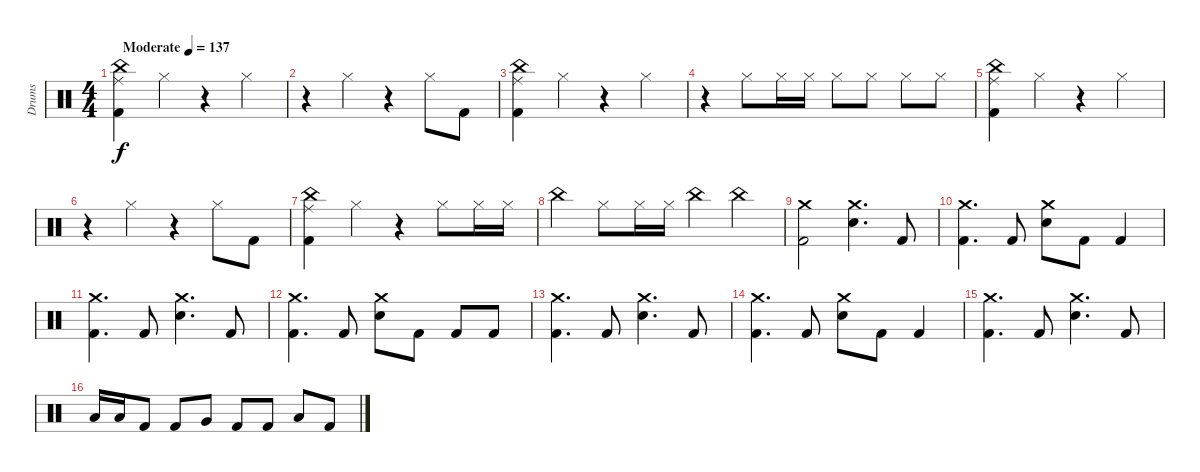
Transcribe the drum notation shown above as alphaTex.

\track ("Drums" "Drums") {instrument percussion}
\staff {score}
\articulation defaults
\ts (4 4)
\tempo (137 "Moderate")
\clef neutral
\ks c
("Kick (hit) 2" "Ride (middle)" "China (hit)").4{dy f} "Hi-Hat (closed)".4 r.4 "Hi-Hat (closed)".4 |
r.4 "Hi-Hat (closed)".4 r.4 "Hi-Hat (closed)".8 "Kick (hit) 2".8 |
("Kick (hit) 2" "Ride (middle)" "China (hit)").4 "Hi-Hat (closed)".4 r.4 "Hi-Hat (closed)".4 |
r.4 "Hi-Hat (closed)".8 "Hi-Hat (closed)".16 "Hi-Hat (closed)".16 "Hi-Hat (closed)".8 "Hi-Hat (closed)".8 "Hi-Hat (closed)".8 "Hi-Hat (closed)".8 |
("Kick (hit) 2" "Ride (middle)" "China (hit)").4 "Hi-Hat (closed)".4 r.4 "Hi-Hat (closed)".4 |
r.4 "Hi-Hat (closed)".4 r.4 "Hi-Hat (closed)".8 "Kick (hit) 2".8 |
("Kick (hit) 2" "Ride (middle)" "China (hit)").4 "Hi-Hat (closed)".4 r.4 "Hi-Hat (closed)".8 "Hi-Hat (closed)".16 "Hi-Hat (closed)".16 |
"China (hit)".4 "Hi-Hat (closed)".8 "Hi-Hat (closed)".16 "Hi-Hat (closed)".16 "China (hit)".4 "China (hit)".4 |
("Kick (hit) 2" "Crash medium (hit)").2 ("Snare (hit) 2" "Crash medium (hit)").4{d} "Kick (hit) 2".8 |
("Kick (hit) 2" "Crash medium (hit)").4{d} "Kick (hit) 2".8 ("Snare (hit) 2" "Crash medium (hit)").8 "Kick (hit) 2".8 "Kick (hit) 2".4 |
("Kick (hit) 2" "Crash medium (hit)").4{d} "Kick (hit) 2".8 ("Snare (hit) 2" "Crash medium (hit)").4{d} "Kick (hit) 2".8 |
("Kick (hit) 2" "Crash medium (hit)").4{d} "Kick (hit) 2".8 ("Snare (hit) 2" "Crash medium (hit)").8 "Kick (hit) 2".8 "Kick (hit) 2".8 "Kick (hit) 2".8 |
("Kick (hit) 2" "Crash medium (hit)").4{d} "Kick (hit) 2".8 ("Snare (hit) 2" "Crash medium (hit)").4{d} "Kick (hit) 2".8 |
("Kick (hit) 2" "Crash medium (hit)").4{d} "Kick (hit) 2".8 ("Snare (hit) 2" "Crash medium (hit)").8 "Kick (hit) 2".8 "Kick (hit) 2".4 |
("Kick (hit) 2" "Crash medium (hit)").4{d} "Kick (hit) 2".8 ("Snare (hit) 2" "Crash medium (hit)").4{d} "Kick (hit) 2".8 |
"Low Tom (hit)".16 "Low Tom (hit)".16 "Kick (hit) 2".8 "Kick (hit) 2".8 "Very Low Tom (hit)".8 "Kick (hit) 2".8 "Kick (hit) 2".8 "Low Floor Tom (hit)".8 "Kick (hit) 2".8
